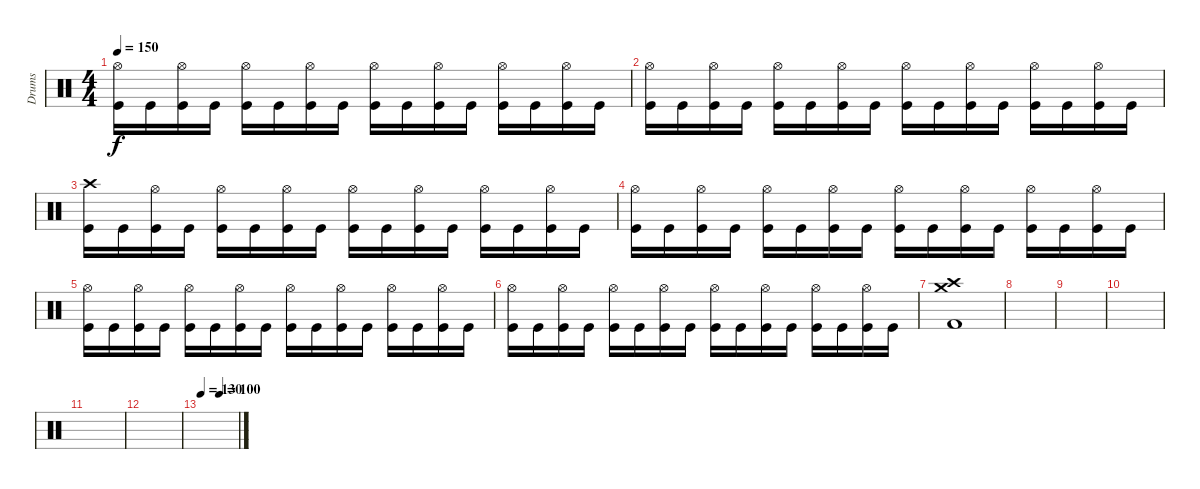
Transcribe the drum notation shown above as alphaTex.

\track ("Drums" "Drums") {instrument percussion}
\staff {score}
\articulation defaults
\ts (4 4)
\tempo 150
\clef neutral
\ks c
("Hi-Hat (open)" "Kick (hit)").16{dy f} "Kick (hit)".16 ("Hi-Hat (open)" "Kick (hit)").16 "Kick (hit)".16 ("Hi-Hat (open)" "Kick (hit)").16 "Kick (hit)".16 ("Hi-Hat (open)" "Kick (hit)").16 "Kick (hit)".16 ("Hi-Hat (open)" "Kick (hit)").16 "Kick (hit)".16 ("Hi-Hat (open)" "Kick (hit)").16 "Kick (hit)".16 ("Hi-Hat (open)" "Kick (hit)").16 "Kick (hit)".16 ("Hi-Hat (open)" "Kick (hit)").16 "Kick (hit)".16 |
("Hi-Hat (open)" "Kick (hit)").16 "Kick (hit)".16 ("Hi-Hat (open)" "Kick (hit)").16 "Kick (hit)".16 ("Hi-Hat (open)" "Kick (hit)").16 "Kick (hit)".16 ("Hi-Hat (open)" "Kick (hit)").16 "Kick (hit)".16 ("Hi-Hat (open)" "Kick (hit)").16 "Kick (hit)".16 ("Hi-Hat (open)" "Kick (hit)").16 "Kick (hit)".16 ("Hi-Hat (open)" "Kick (hit)").16 "Kick (hit)".16 ("Hi-Hat (open)" "Kick (hit)").16 "Kick (hit)".16 |
("Crash high (hit)" "Kick (hit)").16 "Kick (hit)".16 ("Hi-Hat (open)" "Kick (hit)").16 "Kick (hit)".16 ("Hi-Hat (open)" "Kick (hit)").16 "Kick (hit)".16 ("Hi-Hat (open)" "Kick (hit)").16 "Kick (hit)".16 ("Hi-Hat (open)" "Kick (hit)").16 "Kick (hit)".16 ("Hi-Hat (open)" "Kick (hit)").16 "Kick (hit)".16 ("Hi-Hat (open)" "Kick (hit)").16 "Kick (hit)".16 ("Hi-Hat (open)" "Kick (hit)").16 "Kick (hit)".16 |
("Hi-Hat (open)" "Kick (hit)").16 "Kick (hit)".16 ("Hi-Hat (open)" "Kick (hit)").16 "Kick (hit)".16 ("Hi-Hat (open)" "Kick (hit)").16 "Kick (hit)".16 ("Hi-Hat (open)" "Kick (hit)").16 "Kick (hit)".16 ("Hi-Hat (open)" "Kick (hit)").16 "Kick (hit)".16 ("Hi-Hat (open)" "Kick (hit)").16 "Kick (hit)".16 ("Hi-Hat (open)" "Kick (hit)").16 "Kick (hit)".16 ("Hi-Hat (open)" "Kick (hit)").16 "Kick (hit)".16 |
("Hi-Hat (open)" "Kick (hit)").16 "Kick (hit)".16 ("Hi-Hat (open)" "Kick (hit)").16 "Kick (hit)".16 ("Hi-Hat (open)" "Kick (hit)").16 "Kick (hit)".16 ("Hi-Hat (open)" "Kick (hit)").16 "Kick (hit)".16 ("Hi-Hat (open)" "Kick (hit)").16 "Kick (hit)".16 ("Hi-Hat (open)" "Kick (hit)").16 "Kick (hit)".16 ("Hi-Hat (open)" "Kick (hit)").16 "Kick (hit)".16 ("Hi-Hat (open)" "Kick (hit)").16 "Kick (hit)".16 |
("Hi-Hat (open)" "Kick (hit)").16 "Kick (hit)".16 ("Hi-Hat (open)" "Kick (hit)").16 "Kick (hit)".16 ("Hi-Hat (open)" "Kick (hit)").16 "Kick (hit)".16 ("Hi-Hat (open)" "Kick (hit)").16 "Kick (hit)".16 ("Hi-Hat (open)" "Kick (hit)").16 "Kick (hit)".16 ("Hi-Hat (open)" "Kick (hit)").16 "Kick (hit)".16 ("Hi-Hat (open)" "Kick (hit)").16 "Kick (hit)".16 ("Hi-Hat (open)" "Kick (hit)").16 "Kick (hit)".16 |
("Crash high (hit)" "Crash medium (hit)" "Kick (hit) 2").1 |
|
|
|
|
|
\tempo 130
\tempo (100 0.5)
